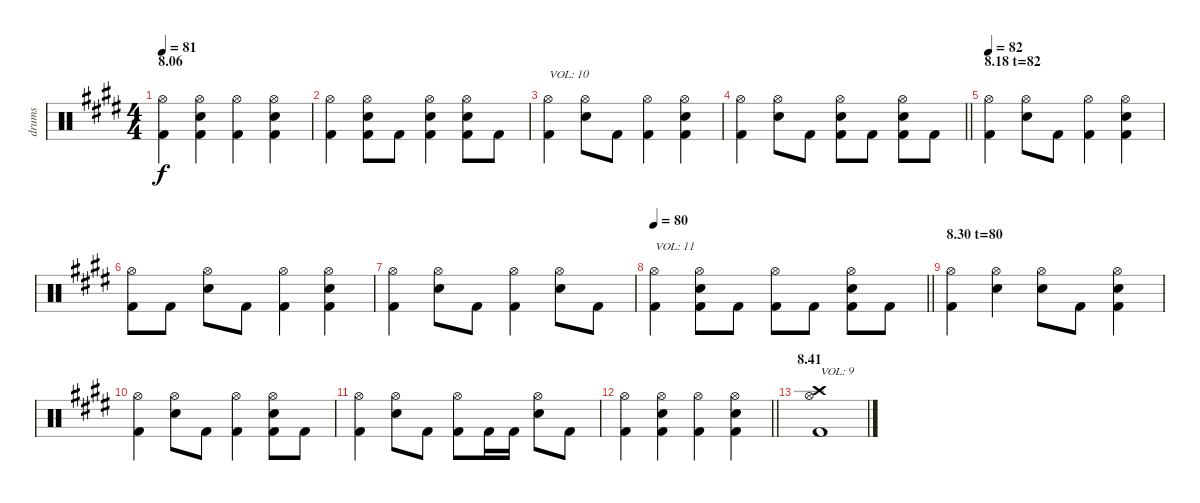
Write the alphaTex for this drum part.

\track ("drums" "drums") {instrument percussion}
\staff {score}
\articulation defaults
\ts (4 4)
\section ("" "8.06")
\tempo 81
\clef neutral
\ks e
("Hi-Hat (open)" "Kick (hit) 2").4{dy f} ("Hi-Hat (open)" "Electric Snare (hit)" "Kick (hit) 2").4 ("Hi-Hat (open)" "Kick (hit) 2").4 ("Hi-Hat (open)" "Electric Snare (hit)" "Kick (hit) 2").4 |
("Hi-Hat (open)" "Kick (hit) 2").4 ("Hi-Hat (open)" "Electric Snare (hit)" "Kick (hit) 2").8 "Kick (hit) 2".8 ("Hi-Hat (open)" "Electric Snare (hit)" "Kick (hit) 2").4 ("Hi-Hat (open)" "Electric Snare (hit)" "Kick (hit) 2").8 "Kick (hit) 2".8 |
("Hi-Hat (open)" "Kick (hit) 2").4{txt "VOL: 10" volume 10} ("Hi-Hat (open)" "Electric Snare (hit)").8 "Kick (hit) 2".8 ("Hi-Hat (open)" "Kick (hit) 2").4 ("Hi-Hat (open)" "Electric Snare (hit)" "Kick (hit) 2").4 |
\barLineRight lightlight
("Hi-Hat (open)" "Kick (hit) 2").4 ("Hi-Hat (open)" "Electric Snare (hit)").8 "Kick (hit) 2".8 ("Hi-Hat (open)" "Electric Snare (hit)" "Kick (hit) 2").8 "Kick (hit) 2".8 ("Hi-Hat (open)" "Electric Snare (hit)" "Kick (hit) 2").8 "Kick (hit) 2".8 |
\section ("" "8.18 t=82")
\tempo 82
("Hi-Hat (open)" "Kick (hit) 2").4 ("Hi-Hat (open)" "Electric Snare (hit)").8 "Kick (hit) 2".8 ("Hi-Hat (open)" "Kick (hit) 2").4 ("Hi-Hat (open)" "Electric Snare (hit)" "Kick (hit) 2").4 |
("Hi-Hat (open)" "Kick (hit) 2").8 "Kick (hit) 2".8 ("Hi-Hat (open)" "Electric Snare (hit)").8 "Kick (hit) 2".8 ("Hi-Hat (open)" "Kick (hit) 2").4 ("Hi-Hat (open)" "Electric Snare (hit)" "Kick (hit) 2").4 |
("Hi-Hat (open)" "Kick (hit) 2").4 ("Hi-Hat (open)" "Electric Snare (hit)").8 "Kick (hit) 2".8 ("Hi-Hat (open)" "Kick (hit) 2").4 ("Hi-Hat (open)" "Electric Snare (hit)").8 "Kick (hit) 2".8 |
\tempo 80
\barLineRight lightlight
("Hi-Hat (open)" "Kick (hit) 2").4{txt "VOL: 11" volume 11} ("Hi-Hat (open)" "Electric Snare (hit)" "Kick (hit) 2").8 "Kick (hit) 2".8 ("Hi-Hat (open)" "Kick (hit) 2").8 "Kick (hit) 2".8 ("Hi-Hat (open)" "Electric Snare (hit)" "Kick (hit) 2").8 "Kick (hit) 2".8 |
\section ("" "8.30 t=80")
("Hi-Hat (open)" "Kick (hit) 2").4 ("Hi-Hat (open)" "Electric Snare (hit)").4 ("Hi-Hat (open)" "Electric Snare (hit)").8 "Kick (hit) 2".8 ("Hi-Hat (open)" "Electric Snare (hit)" "Kick (hit) 2").4 |
("Hi-Hat (open)" "Kick (hit) 2").4 ("Hi-Hat (open)" "Electric Snare (hit)").8 "Kick (hit) 2".8 ("Hi-Hat (open)" "Kick (hit) 2").4 ("Hi-Hat (open)" "Electric Snare (hit)" "Kick (hit) 2").8 "Kick (hit) 2".8 |
("Hi-Hat (open)" "Kick (hit) 2").4 ("Hi-Hat (open)" "Electric Snare (hit)").8 "Kick (hit) 2".8 ("Hi-Hat (open)" "Kick (hit) 2").8 "Kick (hit) 2".16 "Kick (hit) 2".16 ("Hi-Hat (open)" "Electric Snare (hit)").8 "Kick (hit) 2".8 |
\barLineRight lightlight
("Hi-Hat (open)" "Kick (hit) 2").4 ("Hi-Hat (open)" "Electric Snare (hit)" "Kick (hit) 2").4 ("Hi-Hat (open)" "Kick (hit) 2").4 ("Hi-Hat (open)" "Electric Snare (hit)" "Kick (hit) 2").4 |
\section ("" "8.41")
("Crash high (hit)" "Hi-Hat (open)" "Kick (hit) 2").1{txt "VOL: 9" volume 9}
